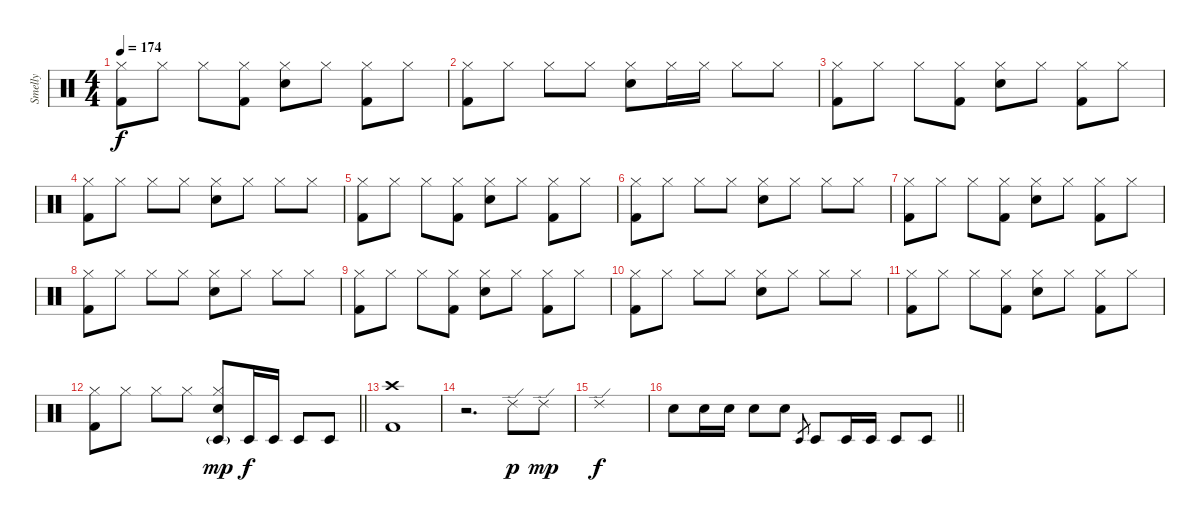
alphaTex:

\track ("Smelly" "Smelly") {instrument percussion}
\staff {score}
\articulation defaults
\ts (4 4)
\tempo 174
\clef neutral
\ks c
("Hi-Hat (closed)" "Kick (hit) 2").8{dy f} "Hi-Hat (closed)".8 "Hi-Hat (closed)".8 ("Hi-Hat (closed)" "Kick (hit) 2").8 ("Hi-Hat (closed)" "Electric Snare (hit)").8 "Hi-Hat (closed)".8 ("Hi-Hat (closed)" "Kick (hit) 2").8 "Hi-Hat (closed)".8 |
("Hi-Hat (closed)" "Kick (hit) 2").8 "Hi-Hat (closed)".8 "Hi-Hat (closed)".8 "Hi-Hat (closed)".8 ("Hi-Hat (closed)" "Electric Snare (hit)").8 "Hi-Hat (closed)".16 "Hi-Hat (closed)".16 "Hi-Hat (closed)".8 "Hi-Hat (closed)".8 |
("Hi-Hat (closed)" "Kick (hit) 2").8 "Hi-Hat (closed)".8 "Hi-Hat (closed)".8 ("Hi-Hat (closed)" "Kick (hit) 2").8 ("Hi-Hat (closed)" "Electric Snare (hit)").8 "Hi-Hat (closed)".8 ("Hi-Hat (closed)" "Kick (hit) 2").8 "Hi-Hat (closed)".8 |
("Hi-Hat (closed)" "Kick (hit) 2").8 "Hi-Hat (closed)".8 "Hi-Hat (closed)".8 "Hi-Hat (closed)".8 ("Hi-Hat (closed)" "Electric Snare (hit)").8 "Hi-Hat (closed)".8 "Hi-Hat (closed)".8 "Hi-Hat (closed)".8 |
("Hi-Hat (closed)" "Kick (hit) 2").8 "Hi-Hat (closed)".8 "Hi-Hat (closed)".8 ("Hi-Hat (closed)" "Kick (hit) 2").8 ("Hi-Hat (closed)" "Electric Snare (hit)").8 "Hi-Hat (closed)".8 ("Hi-Hat (closed)" "Kick (hit) 2").8 "Hi-Hat (closed)".8 |
("Hi-Hat (closed)" "Kick (hit) 2").8 "Hi-Hat (closed)".8 "Hi-Hat (closed)".8 "Hi-Hat (closed)".8 ("Hi-Hat (closed)" "Electric Snare (hit)").8 "Hi-Hat (closed)".8 "Hi-Hat (closed)".8 "Hi-Hat (closed)".8 |
("Hi-Hat (closed)" "Kick (hit) 2").8 "Hi-Hat (closed)".8 "Hi-Hat (closed)".8 ("Hi-Hat (closed)" "Kick (hit) 2").8 ("Hi-Hat (closed)" "Electric Snare (hit)").8 "Hi-Hat (closed)".8 ("Hi-Hat (closed)" "Kick (hit) 2").8 "Hi-Hat (closed)".8 |
("Hi-Hat (closed)" "Kick (hit) 2").8 "Hi-Hat (closed)".8 "Hi-Hat (closed)".8 "Hi-Hat (closed)".8 ("Hi-Hat (closed)" "Electric Snare (hit)").8 "Hi-Hat (closed)".8 "Hi-Hat (closed)".8 "Hi-Hat (closed)".8 |
("Hi-Hat (closed)" "Kick (hit) 2").8 "Hi-Hat (closed)".8 "Hi-Hat (closed)".8 ("Hi-Hat (closed)" "Kick (hit) 2").8 ("Hi-Hat (closed)" "Electric Snare (hit)").8 "Hi-Hat (closed)".8 ("Hi-Hat (closed)" "Kick (hit) 2").8 "Hi-Hat (closed)".8 |
("Hi-Hat (closed)" "Kick (hit) 2").8 "Hi-Hat (closed)".8 "Hi-Hat (closed)".8 "Hi-Hat (closed)".8 ("Hi-Hat (closed)" "Electric Snare (hit)").8 "Hi-Hat (closed)".8 "Hi-Hat (closed)".8 "Hi-Hat (closed)".8 |
("Hi-Hat (closed)" "Kick (hit) 2").8 "Hi-Hat (closed)".8 "Hi-Hat (closed)".8 ("Hi-Hat (closed)" "Kick (hit) 2").8 ("Hi-Hat (closed)" "Electric Snare (hit)").8 "Hi-Hat (closed)".8 ("Hi-Hat (closed)" "Kick (hit) 2").8 "Hi-Hat (closed)".8 |
\barLineRight lightlight
("Hi-Hat (closed)" "Kick (hit) 2").8 "Hi-Hat (closed)".8 "Hi-Hat (closed)".8 "Hi-Hat (closed)".8 ("Hi-Hat (closed)" "Electric Snare (hit)" "Timbale low (hit)"{g}).8{dy mp} "Timbale low (hit)".16{dy f} "Timbale low (hit)".16 "Timbale low (hit)".8 "Timbale low (hit)".8 |
\section ("" "")
("Crash high (hit)" "Kick (hit) 2").1 |
r.2{d} "Ride (edge) 2".8{dy p} "Ride (edge) 2".8{dy mp} |
"Ride (edge) 2".1{dy f} |
\barLineRight lightlight "Electric Snare (hit)".8 "Electric Snare (hit)".16 "Electric Snare (hit)".16 "Electric Snare (hit)".8 "Electric Snare (hit)".8 "Timbale low (hit)".8{gr} "Timbale low (hit)".8 "Timbale low (hit)".16 "Timbale low (hit)".16 "Timbale low (hit)".8 "Timbale low (hit)".8
